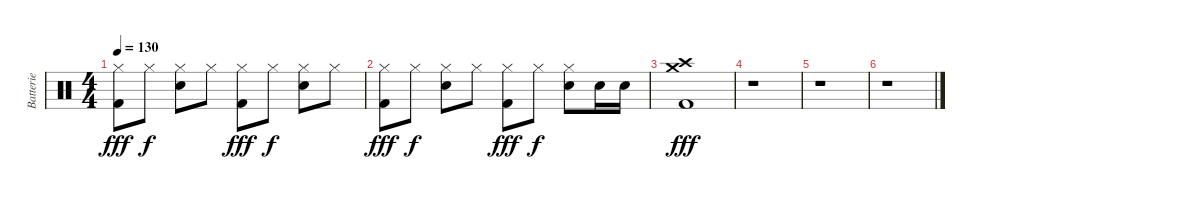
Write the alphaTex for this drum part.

\track ("Batterie" "Batterie") {instrument percussion}
\staff {score}
\articulation defaults
\ts (4 4)
\tempo 130
\clef neutral
\ks c
("Hi-Hat (closed)" "Kick (hit) 2").8{dy fff} "Hi-Hat (closed)".8{dy f} ("Hi-Hat (closed)" "Snare (hit) 2").8 "Hi-Hat (closed)".8 ("Hi-Hat (closed)" "Kick (hit) 2").8{dy fff} "Hi-Hat (closed)".8{dy f} ("Hi-Hat (closed)" "Snare (hit) 2").8 "Hi-Hat (closed)".8 |
("Hi-Hat (closed)" "Kick (hit) 2").8{dy fff} "Hi-Hat (closed)".8{dy f} ("Hi-Hat (closed)" "Snare (hit) 2").8 "Hi-Hat (closed)".8 ("Hi-Hat (closed)" "Kick (hit) 2").8{dy fff} "Hi-Hat (closed)".8{dy f} ("Hi-Hat (closed)" "Snare (hit) 2").8 "Snare (hit) 2".16 "Snare (hit) 2".16 |
("Crash medium (hit)" "Crash high (hit)" "Kick (hit) 2").1{dy fff} |
r.1 |
r.1 |
r.1
